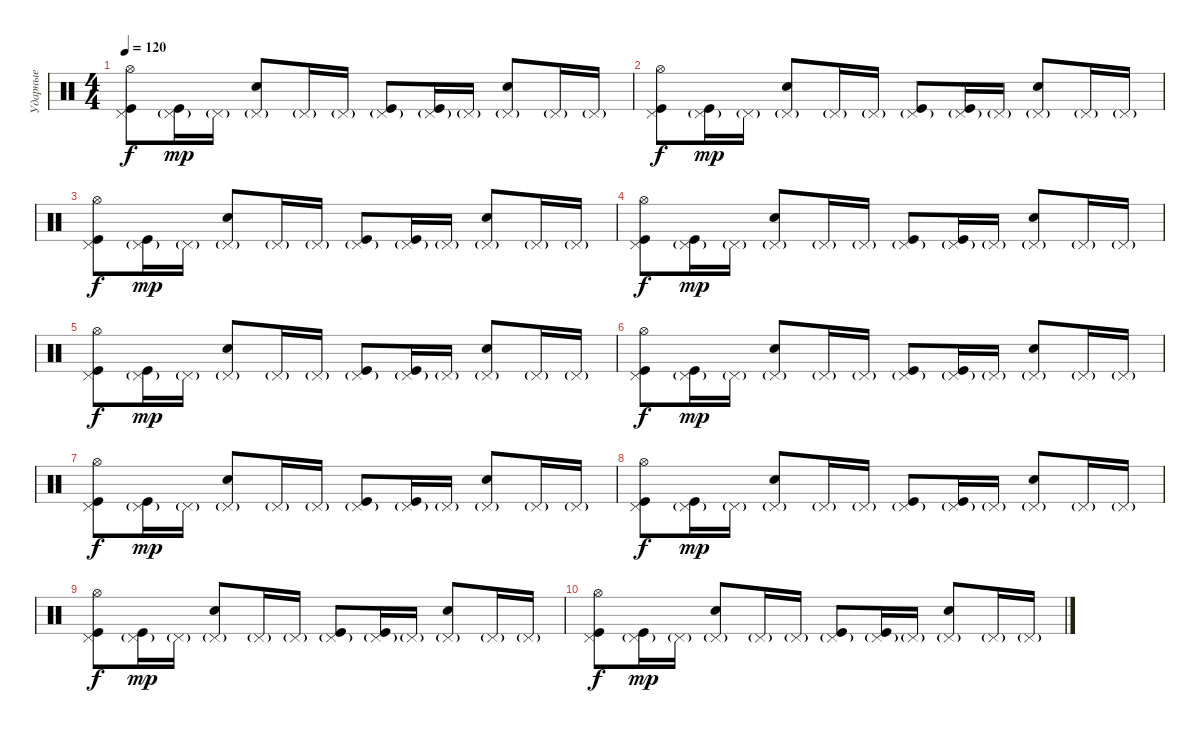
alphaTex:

\track ("Ударные" "Ударные") {instrument percussion}
\staff {score}
\articulation defaults
\ts (4 4)
\tempo 120
\clef neutral
\ks c
("Hi-Hat (open)" "Kick (hit)" "Pedal Hi-Hat (hit)").8{dy f} ("Kick (hit)" "Pedal Hi-Hat (hit)"{g}).16{dy mp} "Pedal Hi-Hat (hit)"{g}.16 ("Electric Snare (hit)" "Pedal Hi-Hat (hit)"{g}).8 "Pedal Hi-Hat (hit)"{g}.16 "Pedal Hi-Hat (hit)"{g}.16 ("Kick (hit)" "Pedal Hi-Hat (hit)"{g}).8 ("Kick (hit)" "Pedal Hi-Hat (hit)"{g}).16 "Pedal Hi-Hat (hit)"{g}.16 ("Electric Snare (hit)" "Pedal Hi-Hat (hit)"{g}).8 "Pedal Hi-Hat (hit)"{g}.16 "Pedal Hi-Hat (hit)"{g}.16 |
("Hi-Hat (open)" "Kick (hit)" "Pedal Hi-Hat (hit)").8{dy f} ("Kick (hit)" "Pedal Hi-Hat (hit)"{g}).16{dy mp} "Pedal Hi-Hat (hit)"{g}.16 ("Electric Snare (hit)" "Pedal Hi-Hat (hit)"{g}).8 "Pedal Hi-Hat (hit)"{g}.16 "Pedal Hi-Hat (hit)"{g}.16 ("Kick (hit)" "Pedal Hi-Hat (hit)"{g}).8 ("Kick (hit)" "Pedal Hi-Hat (hit)"{g}).16 "Pedal Hi-Hat (hit)"{g}.16 ("Electric Snare (hit)" "Pedal Hi-Hat (hit)"{g}).8 "Pedal Hi-Hat (hit)"{g}.16 "Pedal Hi-Hat (hit)"{g}.16 |
("Hi-Hat (open)" "Kick (hit)" "Pedal Hi-Hat (hit)").8{dy f} ("Kick (hit)" "Pedal Hi-Hat (hit)"{g}).16{dy mp} "Pedal Hi-Hat (hit)"{g}.16 ("Electric Snare (hit)" "Pedal Hi-Hat (hit)"{g}).8 "Pedal Hi-Hat (hit)"{g}.16 "Pedal Hi-Hat (hit)"{g}.16 ("Kick (hit)" "Pedal Hi-Hat (hit)"{g}).8 ("Kick (hit)" "Pedal Hi-Hat (hit)"{g}).16 "Pedal Hi-Hat (hit)"{g}.16 ("Electric Snare (hit)" "Pedal Hi-Hat (hit)"{g}).8 "Pedal Hi-Hat (hit)"{g}.16 "Pedal Hi-Hat (hit)"{g}.16 |
("Hi-Hat (open)" "Kick (hit)" "Pedal Hi-Hat (hit)").8{dy f} ("Kick (hit)" "Pedal Hi-Hat (hit)"{g}).16{dy mp} "Pedal Hi-Hat (hit)"{g}.16 ("Electric Snare (hit)" "Pedal Hi-Hat (hit)"{g}).8 "Pedal Hi-Hat (hit)"{g}.16 "Pedal Hi-Hat (hit)"{g}.16 ("Kick (hit)" "Pedal Hi-Hat (hit)"{g}).8 ("Kick (hit)" "Pedal Hi-Hat (hit)"{g}).16 "Pedal Hi-Hat (hit)"{g}.16 ("Electric Snare (hit)" "Pedal Hi-Hat (hit)"{g}).8 "Pedal Hi-Hat (hit)"{g}.16 "Pedal Hi-Hat (hit)"{g}.16 |
("Hi-Hat (open)" "Kick (hit)" "Pedal Hi-Hat (hit)").8{dy f} ("Kick (hit)" "Pedal Hi-Hat (hit)"{g}).16{dy mp} "Pedal Hi-Hat (hit)"{g}.16 ("Electric Snare (hit)" "Pedal Hi-Hat (hit)"{g}).8 "Pedal Hi-Hat (hit)"{g}.16 "Pedal Hi-Hat (hit)"{g}.16 ("Kick (hit)" "Pedal Hi-Hat (hit)"{g}).8 ("Kick (hit)" "Pedal Hi-Hat (hit)"{g}).16 "Pedal Hi-Hat (hit)"{g}.16 ("Electric Snare (hit)" "Pedal Hi-Hat (hit)"{g}).8 "Pedal Hi-Hat (hit)"{g}.16 "Pedal Hi-Hat (hit)"{g}.16 |
("Hi-Hat (open)" "Kick (hit)" "Pedal Hi-Hat (hit)").8{dy f} ("Kick (hit)" "Pedal Hi-Hat (hit)"{g}).16{dy mp} "Pedal Hi-Hat (hit)"{g}.16 ("Electric Snare (hit)" "Pedal Hi-Hat (hit)"{g}).8 "Pedal Hi-Hat (hit)"{g}.16 "Pedal Hi-Hat (hit)"{g}.16 ("Kick (hit)" "Pedal Hi-Hat (hit)"{g}).8 ("Kick (hit)" "Pedal Hi-Hat (hit)"{g}).16 "Pedal Hi-Hat (hit)"{g}.16 ("Electric Snare (hit)" "Pedal Hi-Hat (hit)"{g}).8 "Pedal Hi-Hat (hit)"{g}.16 "Pedal Hi-Hat (hit)"{g}.16 |
("Hi-Hat (open)" "Kick (hit)" "Pedal Hi-Hat (hit)").8{dy f} ("Kick (hit)" "Pedal Hi-Hat (hit)"{g}).16{dy mp} "Pedal Hi-Hat (hit)"{g}.16 ("Electric Snare (hit)" "Pedal Hi-Hat (hit)"{g}).8 "Pedal Hi-Hat (hit)"{g}.16 "Pedal Hi-Hat (hit)"{g}.16 ("Kick (hit)" "Pedal Hi-Hat (hit)"{g}).8 ("Kick (hit)" "Pedal Hi-Hat (hit)"{g}).16 "Pedal Hi-Hat (hit)"{g}.16 ("Electric Snare (hit)" "Pedal Hi-Hat (hit)"{g}).8 "Pedal Hi-Hat (hit)"{g}.16 "Pedal Hi-Hat (hit)"{g}.16 |
("Hi-Hat (open)" "Kick (hit)" "Pedal Hi-Hat (hit)").8{dy f} ("Kick (hit)" "Pedal Hi-Hat (hit)"{g}).16{dy mp} "Pedal Hi-Hat (hit)"{g}.16 ("Electric Snare (hit)" "Pedal Hi-Hat (hit)"{g}).8 "Pedal Hi-Hat (hit)"{g}.16 "Pedal Hi-Hat (hit)"{g}.16 ("Kick (hit)" "Pedal Hi-Hat (hit)"{g}).8 ("Kick (hit)" "Pedal Hi-Hat (hit)"{g}).16 "Pedal Hi-Hat (hit)"{g}.16 ("Electric Snare (hit)" "Pedal Hi-Hat (hit)"{g}).8 "Pedal Hi-Hat (hit)"{g}.16 "Pedal Hi-Hat (hit)"{g}.16 |
("Hi-Hat (open)" "Kick (hit)" "Pedal Hi-Hat (hit)").8{dy f} ("Kick (hit)" "Pedal Hi-Hat (hit)"{g}).16{dy mp} "Pedal Hi-Hat (hit)"{g}.16 ("Electric Snare (hit)" "Pedal Hi-Hat (hit)"{g}).8 "Pedal Hi-Hat (hit)"{g}.16 "Pedal Hi-Hat (hit)"{g}.16 ("Kick (hit)" "Pedal Hi-Hat (hit)"{g}).8 ("Kick (hit)" "Pedal Hi-Hat (hit)"{g}).16 "Pedal Hi-Hat (hit)"{g}.16 ("Electric Snare (hit)" "Pedal Hi-Hat (hit)"{g}).8 "Pedal Hi-Hat (hit)"{g}.16 "Pedal Hi-Hat (hit)"{g}.16 |
("Hi-Hat (open)" "Kick (hit)" "Pedal Hi-Hat (hit)").8{dy f} ("Kick (hit)" "Pedal Hi-Hat (hit)"{g}).16{dy mp} "Pedal Hi-Hat (hit)"{g}.16 ("Electric Snare (hit)" "Pedal Hi-Hat (hit)"{g}).8 "Pedal Hi-Hat (hit)"{g}.16 "Pedal Hi-Hat (hit)"{g}.16 ("Kick (hit)" "Pedal Hi-Hat (hit)"{g}).8 ("Kick (hit)" "Pedal Hi-Hat (hit)"{g}).16 "Pedal Hi-Hat (hit)"{g}.16 ("Electric Snare (hit)" "Pedal Hi-Hat (hit)"{g}).8 "Pedal Hi-Hat (hit)"{g}.16 "Pedal Hi-Hat (hit)"{g}.16
